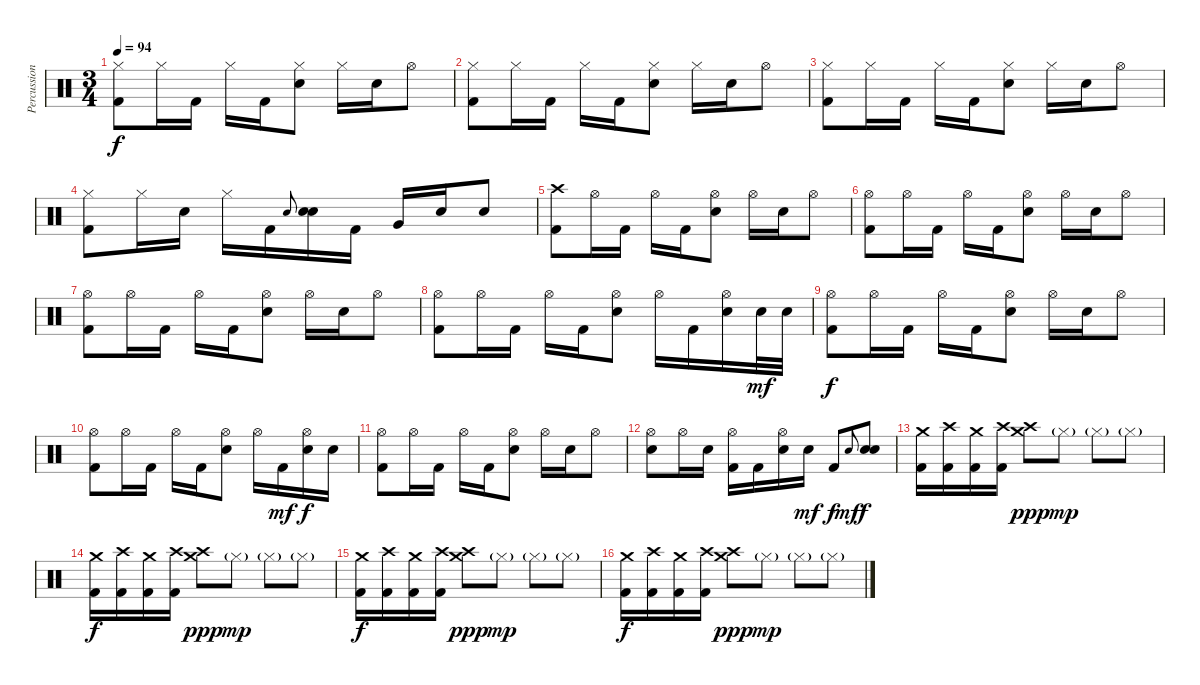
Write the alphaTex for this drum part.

\track ("Percussion" "Percussion") {instrument percussion}
\staff {score}
\articulation defaults
\ts (3 4)
\tempo 94
\clef neutral
\ks c
("Hi-Hat (closed)" "Kick (hit) 2").8{dy f} "Hi-Hat (closed)".16 "Kick (hit) 2".16 "Hi-Hat (closed)".16 "Kick (hit) 2".16 ("Hi-Hat (closed)" "Electric Snare (hit)").8 "Hi-Hat (closed)".16 "Electric Snare (hit)".16 "Hi-Hat (open)".8 |
("Hi-Hat (closed)" "Kick (hit) 2").8 "Hi-Hat (closed)".16 "Kick (hit) 2".16 "Hi-Hat (closed)".16 "Kick (hit) 2".16 ("Hi-Hat (closed)" "Electric Snare (hit)").8 "Hi-Hat (closed)".16 "Electric Snare (hit)".16 "Hi-Hat (open)".8 |
("Hi-Hat (closed)" "Kick (hit) 2").8 "Hi-Hat (closed)".16 "Kick (hit) 2".16 "Hi-Hat (closed)".16 "Kick (hit) 2".16 ("Hi-Hat (closed)" "Electric Snare (hit)").8 "Hi-Hat (closed)".16 "Electric Snare (hit)".16 "Hi-Hat (open)".8 |
("Hi-Hat (closed)" "Kick (hit) 2").8 "Hi-Hat (closed)".16 "Electric Snare (hit)".16 "Hi-Hat (closed)".16 "Kick (hit) 2".16 "Electric Snare (hit)".8{gr onbeat} ("Electric Snare (hit)" "Electric Snare (hit)").16 "Kick (hit) 2".16 "Very Low Tom (hit)".16 "Electric Snare (hit)".16 "Electric Snare (hit)".8 |
("Crash high (hit)" "Kick (hit) 2").8 "Hi-Hat (open)".16 "Kick (hit) 2".16 "Hi-Hat (open)".16 "Kick (hit) 2".16 ("Hi-Hat (open)" "Electric Snare (hit)").8 "Hi-Hat (open)".16 "Electric Snare (hit)".16 "Hi-Hat (open)".8 |
("Hi-Hat (open)" "Kick (hit) 2").8 "Hi-Hat (open)".16 "Kick (hit) 2".16 "Hi-Hat (open)".16 "Kick (hit) 2".16 ("Hi-Hat (open)" "Electric Snare (hit)").8 "Hi-Hat (open)".16 "Electric Snare (hit)".16 "Hi-Hat (open)".8 |
("Hi-Hat (open)" "Kick (hit) 2").8 "Hi-Hat (open)".16 "Kick (hit) 2".16 "Hi-Hat (open)".16 "Kick (hit) 2".16 ("Hi-Hat (open)" "Electric Snare (hit)").8 "Hi-Hat (open)".16 "Electric Snare (hit)".16 "Hi-Hat (open)".8 |
("Hi-Hat (open)" "Kick (hit) 2").8 "Hi-Hat (open)".16 "Kick (hit) 2".16 "Hi-Hat (open)".16 "Kick (hit) 2".16 ("Hi-Hat (open)" "Electric Snare (hit)").8 "Hi-Hat (open)".16 "Kick (hit) 2".16 ("Hi-Hat (open)" "Electric Snare (hit)").16 "Electric Snare (hit)".32{dy mf} "Electric Snare (hit)".32 |
("Hi-Hat (open)" "Kick (hit) 2").8{dy f} "Hi-Hat (open)".16 "Kick (hit) 2".16 "Hi-Hat (open)".16 "Kick (hit) 2".16 ("Hi-Hat (open)" "Electric Snare (hit)").8 "Hi-Hat (open)".16 "Electric Snare (hit)".16 "Hi-Hat (open)".8 |
("Hi-Hat (open)" "Kick (hit) 2").8 "Hi-Hat (open)".16 "Kick (hit) 2".16 "Hi-Hat (open)".16 "Kick (hit) 2".16 ("Hi-Hat (open)" "Electric Snare (hit)").8 "Hi-Hat (open)".16 "Kick (hit) 2".16{dy mf} ("Hi-Hat (open)" "Electric Snare (hit)").16{dy f} "Electric Snare (hit)".16 |
("Hi-Hat (open)" "Kick (hit) 2").8 "Hi-Hat (open)".16 "Kick (hit) 2".16 "Hi-Hat (open)".16 "Kick (hit) 2".16 ("Hi-Hat (open)" "Electric Snare (hit)").8 "Hi-Hat (open)".16 "Electric Snare (hit)".16 "Hi-Hat (open)".8 |
("Hi-Hat (open)" "Electric Snare (hit)").8 "Hi-Hat (open)".16 "Electric Snare (hit)".16 ("Hi-Hat (open)" "Kick (hit) 2").16 "Kick (hit) 2".16 ("Hi-Hat (open)" "Electric Snare (hit)").16 "Electric Snare (hit)".16{dy mf} "Kick (hit) 2".8{dy f} "Electric Snare (hit)".8{gr onbeat dy mf} ("Electric Snare (hit)" "Electric Snare (hit)").8{dy f} |
("Crash medium (hit)" "Kick (hit) 2").16 ("Crash high (hit)" "Kick (hit) 2").16 ("Crash medium (hit)" "Kick (hit) 2").16 ("Crash high (hit)" "Kick (hit) 2").16 ("Crash medium (hit)" "Crash high (hit)").8{dy ppp} "Hi-Hat (closed)"{g}.8{dy mp} "Hi-Hat (closed)"{g}.8 "Hi-Hat (closed)"{g}.8 |
("Crash medium (hit)" "Kick (hit) 2").16{dy f} ("Crash high (hit)" "Kick (hit) 2").16 ("Crash medium (hit)" "Kick (hit) 2").16 ("Crash high (hit)" "Kick (hit) 2").16 ("Crash medium (hit)" "Crash high (hit)").8{dy ppp} "Hi-Hat (closed)"{g}.8{dy mp} "Hi-Hat (closed)"{g}.8 "Hi-Hat (closed)"{g}.8 |
("Crash medium (hit)" "Kick (hit) 2").16{dy f} ("Crash high (hit)" "Kick (hit) 2").16 ("Crash medium (hit)" "Kick (hit) 2").16 ("Crash high (hit)" "Kick (hit) 2").16 ("Crash medium (hit)" "Crash high (hit)").8{dy ppp} "Hi-Hat (closed)"{g}.8{dy mp} "Hi-Hat (closed)"{g}.8 "Hi-Hat (closed)"{g}.8 |
("Crash medium (hit)" "Kick (hit) 2").16{dy f} ("Crash high (hit)" "Kick (hit) 2").16 ("Crash medium (hit)" "Kick (hit) 2").16 ("Crash high (hit)" "Kick (hit) 2").16 ("Crash medium (hit)" "Crash high (hit)").8{dy ppp} "Hi-Hat (closed)"{g}.8{dy mp} "Hi-Hat (closed)"{g}.8 "Hi-Hat (closed)"{g}.8
